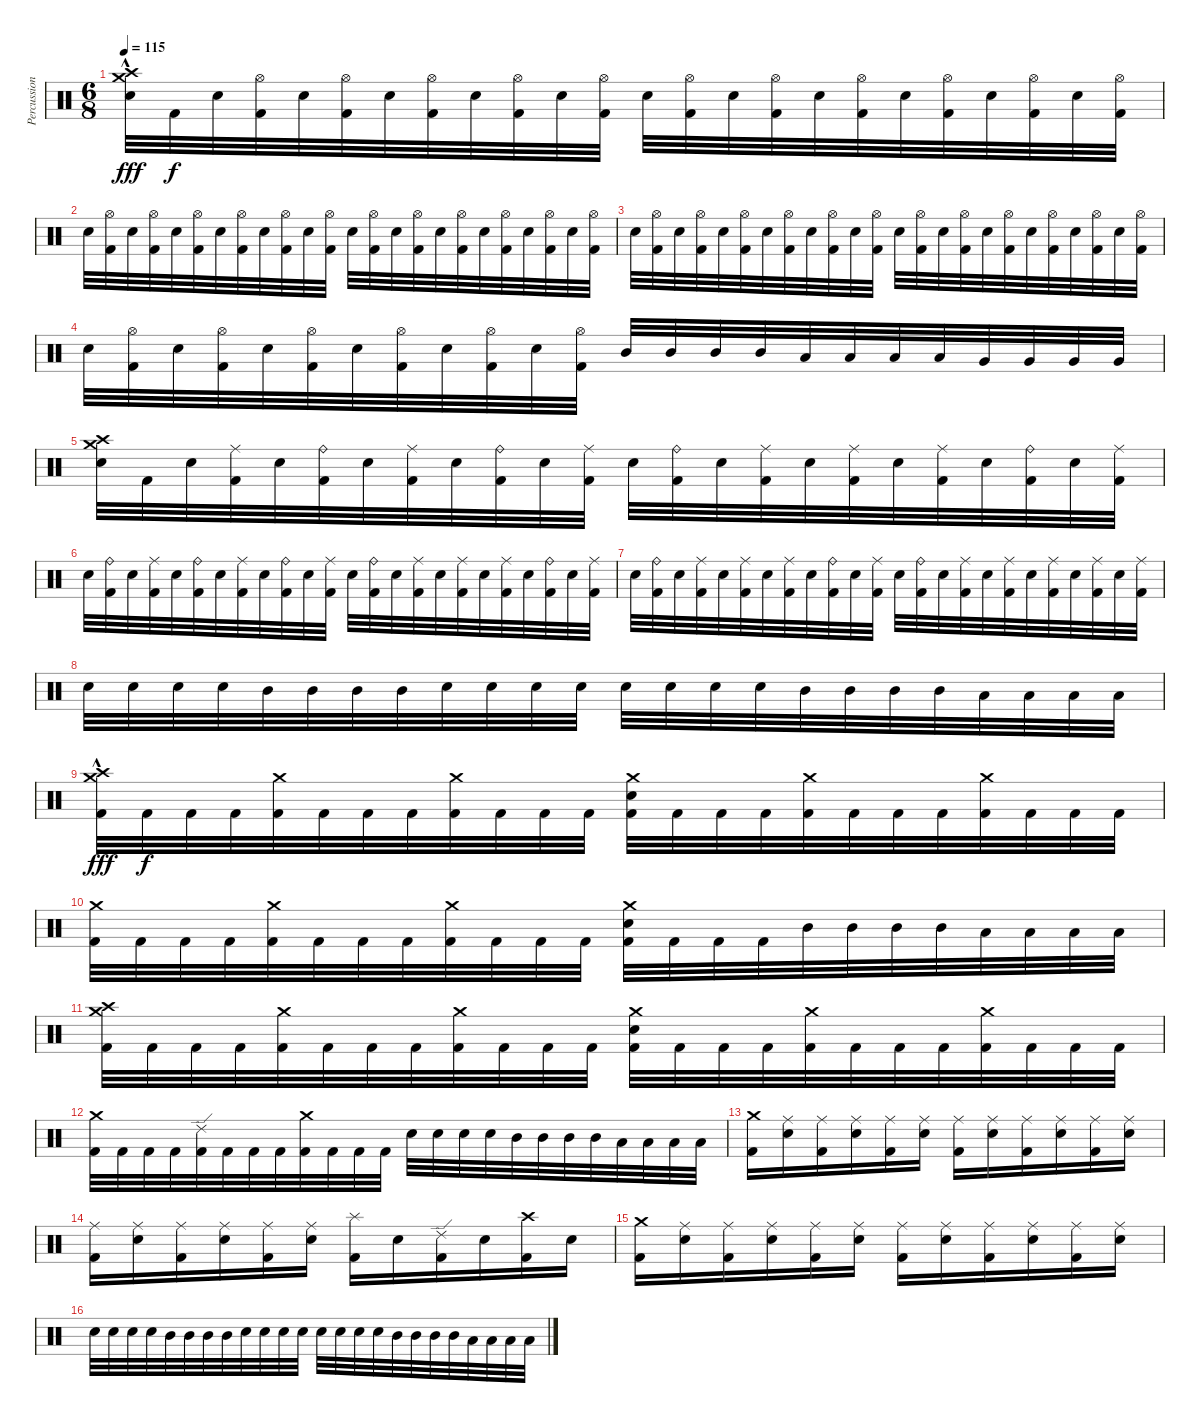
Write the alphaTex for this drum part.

\track ("Percussion" "Percussion") {instrument percussion}
\staff {score}
\articulation defaults
\ts (6 8)
\tempo 115
\clef neutral
\ks c
("Crash medium (hit)"{hac} "Crash high (hit)"{hac} "Electric Snare (hit)").32{dy fff} "Kick (hit) 2".32{dy f} "Electric Snare (hit)".32 ("Hi-Hat (open)" "Kick (hit) 2").32 "Electric Snare (hit)".32 ("Hi-Hat (open)" "Kick (hit) 2").32 "Electric Snare (hit)".32 ("Hi-Hat (open)" "Kick (hit) 2").32 "Electric Snare (hit)".32 ("Hi-Hat (open)" "Kick (hit) 2").32 "Electric Snare (hit)".32 ("Hi-Hat (open)" "Kick (hit) 2").32 "Electric Snare (hit)".32 ("Hi-Hat (open)" "Kick (hit) 2").32 "Electric Snare (hit)".32 ("Hi-Hat (open)" "Kick (hit) 2").32 "Electric Snare (hit)".32 ("Hi-Hat (open)" "Kick (hit) 2").32 "Electric Snare (hit)".32 ("Hi-Hat (open)" "Kick (hit) 2").32 "Electric Snare (hit)".32 ("Hi-Hat (open)" "Kick (hit) 2").32 "Electric Snare (hit)".32 ("Hi-Hat (open)" "Kick (hit) 2").32 |
"Electric Snare (hit)".32 ("Hi-Hat (open)" "Kick (hit) 2").32 "Electric Snare (hit)".32 ("Hi-Hat (open)" "Kick (hit) 2").32 "Electric Snare (hit)".32 ("Hi-Hat (open)" "Kick (hit) 2").32 "Electric Snare (hit)".32 ("Hi-Hat (open)" "Kick (hit) 2").32 "Electric Snare (hit)".32 ("Hi-Hat (open)" "Kick (hit) 2").32 "Electric Snare (hit)".32 ("Hi-Hat (open)" "Kick (hit) 2").32 "Electric Snare (hit)".32 ("Hi-Hat (open)" "Kick (hit) 2").32 "Electric Snare (hit)".32 ("Hi-Hat (open)" "Kick (hit) 2").32 "Electric Snare (hit)".32 ("Hi-Hat (open)" "Kick (hit) 2").32 "Electric Snare (hit)".32 ("Hi-Hat (open)" "Kick (hit) 2").32 "Electric Snare (hit)".32 ("Hi-Hat (open)" "Kick (hit) 2").32 "Electric Snare (hit)".32 ("Hi-Hat (open)" "Kick (hit) 2").32 |
"Electric Snare (hit)".32 ("Hi-Hat (open)" "Kick (hit) 2").32 "Electric Snare (hit)".32 ("Hi-Hat (open)" "Kick (hit) 2").32 "Electric Snare (hit)".32 ("Hi-Hat (open)" "Kick (hit) 2").32 "Electric Snare (hit)".32 ("Hi-Hat (open)" "Kick (hit) 2").32 "Electric Snare (hit)".32 ("Hi-Hat (open)" "Kick (hit) 2").32 "Electric Snare (hit)".32 ("Hi-Hat (open)" "Kick (hit) 2").32 "Electric Snare (hit)".32 ("Hi-Hat (open)" "Kick (hit) 2").32 "Electric Snare (hit)".32 ("Hi-Hat (open)" "Kick (hit) 2").32 "Electric Snare (hit)".32 ("Hi-Hat (open)" "Kick (hit) 2").32 "Electric Snare (hit)".32 ("Hi-Hat (open)" "Kick (hit) 2").32 "Electric Snare (hit)".32 ("Hi-Hat (open)" "Kick (hit) 2").32 "Electric Snare (hit)".32 ("Hi-Hat (open)" "Kick (hit) 2").32 |
"Electric Snare (hit)".32 ("Hi-Hat (open)" "Kick (hit) 2").32 "Electric Snare (hit)".32 ("Hi-Hat (open)" "Kick (hit) 2").32 "Electric Snare (hit)".32 ("Hi-Hat (open)" "Kick (hit) 2").32 "Electric Snare (hit)".32 ("Hi-Hat (open)" "Kick (hit) 2").32 "Electric Snare (hit)".32 ("Hi-Hat (open)" "Kick (hit) 2").32 "Electric Snare (hit)".32 ("Hi-Hat (open)" "Kick (hit) 2").32 "Mid Tom (hit)".32 "Mid Tom (hit)".32 "Mid Tom (hit)".32 "Mid Tom (hit)".32 "Low Tom (hit)".32 "Low Tom (hit)".32 "Low Tom (hit)".32 "Low Tom (hit)".32 "Very Low Tom (hit)".32 "Very Low Tom (hit)".32 "Very Low Tom (hit)".32 "Very Low Tom (hit)".32 |
("Crash medium (hit)" "Crash high (hit)" "Electric Snare (hit)").32 "Kick (hit) 2".32 "Electric Snare (hit)".32 ("Ride (middle)" "Kick (hit) 2").32 "Electric Snare (hit)".32 ("Ride (bell)" "Kick (hit) 2").32 "Electric Snare (hit)".32 ("Ride (middle)" "Kick (hit) 2").32 "Electric Snare (hit)".32 ("Ride (bell)" "Kick (hit) 2").32 "Electric Snare (hit)".32 ("Ride (middle)" "Kick (hit) 2").32 "Electric Snare (hit)".32 ("Ride (bell)" "Kick (hit) 2").32 "Electric Snare (hit)".32 ("Ride (middle)" "Kick (hit) 2").32 "Electric Snare (hit)".32 ("Ride (middle)" "Kick (hit) 2").32 "Electric Snare (hit)".32 ("Ride (middle)" "Kick (hit) 2").32 "Electric Snare (hit)".32 ("Ride (bell)" "Kick (hit) 2").32 "Electric Snare (hit)".32 ("Ride (middle)" "Kick (hit) 2").32 |
"Electric Snare (hit)".32 ("Ride (bell)" "Kick (hit) 2").32 "Electric Snare (hit)".32 ("Ride (middle)" "Kick (hit) 2").32 "Electric Snare (hit)".32 ("Ride (bell)" "Kick (hit) 2").32 "Electric Snare (hit)".32 ("Ride (middle)" "Kick (hit) 2").32 "Electric Snare (hit)".32 ("Ride (bell)" "Kick (hit) 2").32 "Electric Snare (hit)".32 ("Ride (middle)" "Kick (hit) 2").32 "Electric Snare (hit)".32 ("Ride (bell)" "Kick (hit) 2").32 "Electric Snare (hit)".32 ("Ride (middle)" "Kick (hit) 2").32 "Electric Snare (hit)".32 ("Ride (middle)" "Kick (hit) 2").32 "Electric Snare (hit)".32 ("Ride (middle)" "Kick (hit) 2").32 "Electric Snare (hit)".32 ("Ride (bell)" "Kick (hit) 2").32 "Electric Snare (hit)".32 ("Ride (middle)" "Kick (hit) 2").32 |
"Electric Snare (hit)".32 ("Ride (bell)" "Kick (hit) 2").32 "Electric Snare (hit)".32 ("Ride (middle)" "Kick (hit) 2").32 "Electric Snare (hit)".32 ("Ride (middle)" "Kick (hit) 2").32 "Electric Snare (hit)".32 ("Ride (middle)" "Kick (hit) 2").32 "Electric Snare (hit)".32 ("Ride (bell)" "Kick (hit) 2").32 "Electric Snare (hit)".32 ("Ride (middle)" "Kick (hit) 2").32 "Electric Snare (hit)".32 ("Ride (bell)" "Kick (hit) 2").32 "Electric Snare (hit)".32 ("Ride (middle)" "Kick (hit) 2").32 "Electric Snare (hit)".32 ("Ride (middle)" "Kick (hit) 2").32 "Electric Snare (hit)".32 ("Ride (middle)" "Kick (hit) 2").32 "Electric Snare (hit)".32 ("Ride (middle)" "Kick (hit) 2").32 "Electric Snare (hit)".32 ("Ride (middle)" "Kick (hit) 2").32 |
"Electric Snare (hit)".32 "Electric Snare (hit)".32 "Electric Snare (hit)".32 "Electric Snare (hit)".32 "Mid Tom (hit)".32 "Mid Tom (hit)".32 "Mid Tom (hit)".32 "Mid Tom (hit)".32 "Electric Snare (hit)".32 "Electric Snare (hit)".32 "Electric Snare (hit)".32 "Electric Snare (hit)".32 "Electric Snare (hit)".32 "Electric Snare (hit)".32 "Electric Snare (hit)".32 "Electric Snare (hit)".32 "Mid Tom (hit)".32 "Mid Tom (hit)".32 "Mid Tom (hit)".32 "Mid Tom (hit)".32 "Low Tom (hit)".32 "Low Tom (hit)".32 "Low Tom (hit)".32 "Low Tom (hit)".32 |
("Crash medium (hit)"{hac} "Crash high (hit)"{hac} "Kick (hit) 2"{hac}).32{dy fff} "Kick (hit) 2".32{dy f} "Kick (hit) 2".32 "Kick (hit) 2".32 ("Crash medium (hit)" "Kick (hit) 2").32 "Kick (hit) 2".32 "Kick (hit) 2".32 "Kick (hit) 2".32 ("Crash medium (hit)" "Kick (hit) 2").32 "Kick (hit) 2".32 "Kick (hit) 2".32 "Kick (hit) 2".32 ("Crash medium (hit)" "Electric Snare (hit)" "Kick (hit) 2").32 "Kick (hit) 2".32 "Kick (hit) 2".32 "Kick (hit) 2".32 ("Crash medium (hit)" "Kick (hit) 2").32 "Kick (hit) 2".32 "Kick (hit) 2".32 "Kick (hit) 2".32 ("Crash medium (hit)" "Kick (hit) 2").32 "Kick (hit) 2".32 "Kick (hit) 2".32 "Kick (hit) 2".32 |
("Crash medium (hit)" "Kick (hit) 2").32 "Kick (hit) 2".32 "Kick (hit) 2".32 "Kick (hit) 2".32 ("Crash medium (hit)" "Kick (hit) 2").32 "Kick (hit) 2".32 "Kick (hit) 2".32 "Kick (hit) 2".32 ("Crash medium (hit)" "Kick (hit) 2").32 "Kick (hit) 2".32 "Kick (hit) 2".32 "Kick (hit) 2".32 ("Crash medium (hit)" "Electric Snare (hit)" "Kick (hit) 2").32 "Kick (hit) 2".32 "Kick (hit) 2".32 "Kick (hit) 2".32 "Mid Tom (hit)".32 "Mid Tom (hit)".32 "Mid Tom (hit)".32 "Mid Tom (hit)".32 "Low Tom (hit)".32 "Low Tom (hit)".32 "Low Tom (hit)".32 "Low Tom (hit)".32 |
("Crash medium (hit)" "Crash high (hit)" "Kick (hit) 2").32 "Kick (hit) 2".32 "Kick (hit) 2".32 "Kick (hit) 2".32 ("Crash medium (hit)" "Kick (hit) 2").32 "Kick (hit) 2".32 "Kick (hit) 2".32 "Kick (hit) 2".32 ("Crash medium (hit)" "Kick (hit) 2").32 "Kick (hit) 2".32 "Kick (hit) 2".32 "Kick (hit) 2".32 ("Crash medium (hit)" "Electric Snare (hit)" "Kick (hit) 2").32 "Kick (hit) 2".32 "Kick (hit) 2".32 "Kick (hit) 2".32 ("Crash medium (hit)" "Kick (hit) 2").32 "Kick (hit) 2".32 "Kick (hit) 2".32 "Kick (hit) 2".32 ("Crash medium (hit)" "Kick (hit) 2").32 "Kick (hit) 2".32 "Kick (hit) 2".32 "Kick (hit) 2".32 |
("Crash medium (hit)" "Kick (hit) 2").32 "Kick (hit) 2".32 "Kick (hit) 2".32 "Kick (hit) 2".32 ("Ride (edge) 2" "Kick (hit) 2").32 "Kick (hit) 2".32 "Kick (hit) 2".32 "Kick (hit) 2".32 ("Crash medium (hit)" "Kick (hit) 2").32 "Kick (hit) 2".32 "Kick (hit) 2".32 "Kick (hit) 2".32 "Electric Snare (hit)".32 "Electric Snare (hit)".32 "Electric Snare (hit)".32 "Electric Snare (hit)".32 "Mid Tom (hit)".32 "Mid Tom (hit)".32 "Mid Tom (hit)".32 "Mid Tom (hit)".32 "Low Tom (hit)".32 "Low Tom (hit)".32 "Low Tom (hit)".32 "Low Tom (hit)".32 |
("Crash medium (hit)" "Kick (hit) 2").16 ("Ride (middle)" "Electric Snare (hit)").16 ("Ride (middle)" "Kick (hit) 2").16 ("Ride (middle)" "Electric Snare (hit)").16 ("Ride (middle)" "Kick (hit) 2").16 ("Ride (middle)" "Electric Snare (hit)").16 ("Ride (middle)" "Kick (hit) 2").16 ("Ride (middle)" "Electric Snare (hit)").16 ("Ride (middle)" "Kick (hit) 2").16 ("Ride (middle)" "Electric Snare (hit)").16 ("Ride (middle)" "Kick (hit) 2").16 ("Ride (middle)" "Electric Snare (hit)").16 |
("Ride (middle)" "Kick (hit) 2").16 ("Ride (middle)" "Electric Snare (hit)").16 ("Ride (middle)" "Kick (hit) 2").16 ("Ride (middle)" "Electric Snare (hit)").16 ("Ride (middle)" "Kick (hit) 2").16 ("Ride (middle)" "Electric Snare (hit)").16 ("Splash (hit)" "Kick (hit) 2").16 "Electric Snare (hit)".16 ("Ride (edge) 2" "Kick (hit) 2").16 "Electric Snare (hit)".16 ("Crash high (hit)" "Kick (hit) 2").16 "Electric Snare (hit)".16 |
("Crash medium (hit)" "Kick (hit) 2").16 ("Ride (middle)" "Electric Snare (hit)").16 ("Ride (middle)" "Kick (hit) 2").16 ("Ride (middle)" "Electric Snare (hit)").16 ("Ride (middle)" "Kick (hit) 2").16 ("Ride (middle)" "Electric Snare (hit)").16 ("Ride (middle)" "Kick (hit) 2").16 ("Ride (middle)" "Electric Snare (hit)").16 ("Ride (middle)" "Kick (hit) 2").16 ("Ride (middle)" "Electric Snare (hit)").16 ("Ride (middle)" "Kick (hit) 2").16 ("Ride (middle)" "Electric Snare (hit)").16 |
"Electric Snare (hit)".32 "Electric Snare (hit)".32 "Electric Snare (hit)".32 "Electric Snare (hit)".32 "Mid Tom (hit)".32 "Mid Tom (hit)".32 "Mid Tom (hit)".32 "Mid Tom (hit)".32 "Electric Snare (hit)".32 "Electric Snare (hit)".32 "Electric Snare (hit)".32 "Electric Snare (hit)".32 "Electric Snare (hit)".32 "Electric Snare (hit)".32 "Electric Snare (hit)".32 "Electric Snare (hit)".32 "Mid Tom (hit)".32 "Mid Tom (hit)".32 "Mid Tom (hit)".32 "Mid Tom (hit)".32 "Low Tom (hit)".32 "Low Tom (hit)".32 "Low Tom (hit)".32 "Low Tom (hit)".32
